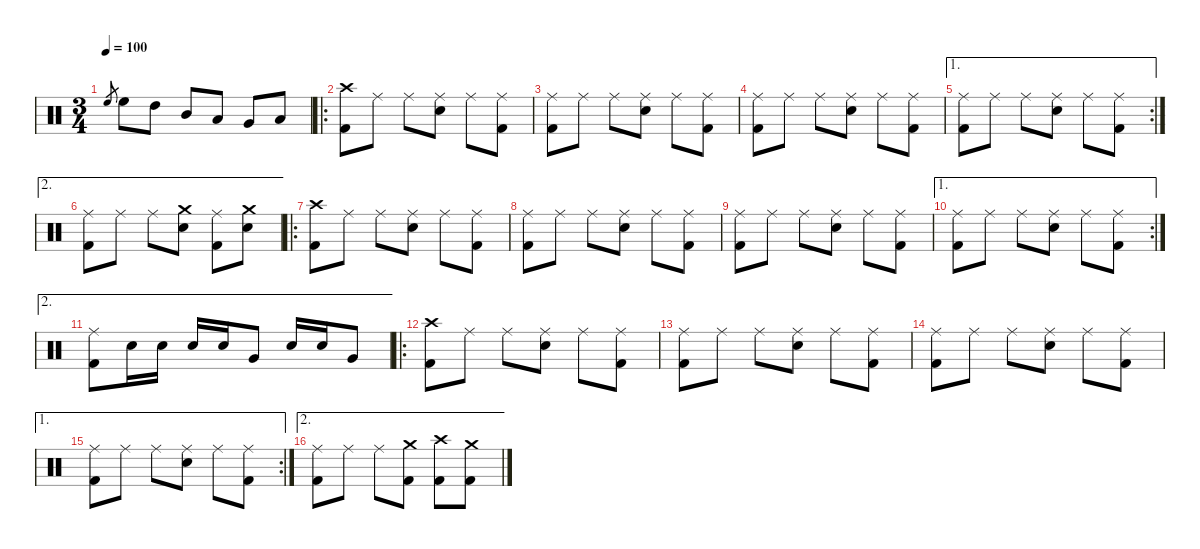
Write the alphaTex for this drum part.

\defaultSystemsLayout 4
\hideDynamics
\bracketExtendMode nobrackets
\singleTrackTrackNamePolicy hidden
\multiTrackTrackNamePolicy hidden
\firstSystemTrackNameMode fullname
\firstSystemTrackNameOrientation horizontal
\otherSystemsTrackNameOrientation horizontal
\track ("Drums" "drm.") {instrument percussion}
\staff {score}
\articulation defaults
\ts (3 4)
\tempo 100
\clef neutral
\ks c "High Floor Tom (hit)".8{gr dy mf beam Up} "High Floor Tom (hit)".8{dy f beam Down} "High Tom (hit)".8{beam Down} "Mid Tom (hit)".8{beam Up} "Low Tom (hit)".8{beam Up} "Very Low Tom (hit)".8{beam Up} "Low Floor Tom (hit)".8{beam Up}
|
\ro
("Crash high (hit)" "Kick (hit) 2").8{beam Down} "Ride (middle)".8{beam Down} "Ride (middle)".8{beam Down} ("Ride (middle)" "Snare (hit) 2").8{beam Down} "Ride (middle)".8{beam Down} ("Ride (middle)" "Kick (hit) 2").8{beam Down} |
("Ride (middle)" "Kick (hit) 2").8{beam Down} "Ride (middle)".8{beam Down} "Ride (middle)".8{beam Down} ("Ride (middle)" "Snare (hit) 2").8{beam Down} "Ride (middle)".8{beam Down} ("Ride (middle)" "Kick (hit) 2").8{beam Down} |
("Ride (middle)" "Kick (hit) 2").8{beam Down} "Ride (middle)".8{beam Down} "Ride (middle)".8{beam Down} ("Ride (middle)" "Snare (hit) 2").8{beam Down} "Ride (middle)".8{beam Down} ("Ride (middle)" "Kick (hit) 2").8{beam Down} |
\ae 1
\rc 2
("Ride (middle)" "Kick (hit) 2").8{beam Down} "Ride (middle)".8{beam Down} "Ride (middle)".8{beam Down} ("Ride (middle)" "Snare (hit) 2").8{beam Down} "Ride (middle)".8{beam Down} ("Ride (middle)" "Kick (hit) 2").8{beam Down} |
\ae 2
("Ride (middle)" "Kick (hit) 2").8{beam Down} "Ride (middle)".8{beam Down} "Ride (middle)".8{beam Down} ("Crash medium (hit)" "Snare (hit) 2").8{beam Down} ("Ride (middle)" "Kick (hit) 2").8{beam Down} ("Crash medium (hit)" "Snare (hit) 2").8{beam Down} |
\ro
("Crash high (hit)" "Kick (hit) 2").8{beam Down} "Ride (middle)".8{beam Down} "Ride (middle)".8{beam Down} ("Ride (middle)" "Snare (hit) 2").8{beam Down} "Ride (middle)".8{beam Down} ("Ride (middle)" "Kick (hit) 2").8{beam Down} |
("Ride (middle)" "Kick (hit) 2").8{beam Down} "Ride (middle)".8{beam Down} "Ride (middle)".8{beam Down} ("Ride (middle)" "Snare (hit) 2").8{beam Down} "Ride (middle)".8{beam Down} ("Ride (middle)" "Kick (hit) 2").8{beam Down} |
("Ride (middle)" "Kick (hit) 2").8{beam Down} "Ride (middle)".8{beam Down} "Ride (middle)".8{beam Down} ("Ride (middle)" "Snare (hit) 2").8{beam Down} "Ride (middle)".8{beam Down} ("Ride (middle)" "Kick (hit) 2").8{beam Down} |
\ae 1
\rc 2
("Ride (middle)" "Kick (hit) 2").8{beam Down} "Ride (middle)".8{beam Down} "Ride (middle)".8{beam Down} ("Ride (middle)" "Snare (hit) 2").8{beam Down} "Ride (middle)".8{beam Down} ("Ride (middle)" "Kick (hit) 2").8{beam Down} |
\ae 2
("Ride (middle)" "Kick (hit) 2").8{beam Down} "Snare (hit) 2".16{dy mf beam Down} "Snare (hit) 2".16{dy f beam Down} "Snare (hit) 2".16{beam Up} "Snare (hit) 2".16{dy ff beam Up} "Very Low Tom (hit)".8{beam Up} "Snare (hit) 2".16{dy f beam Up} "Snare (hit) 2".16{dy ff beam Up} "Very Low Tom (hit)".8{beam Up} |
\ro
("Crash high (hit)" "Kick (hit) 2").8{dy f beam Down} "Ride (middle)".8{beam Down} "Ride (middle)".8{beam Down} ("Ride (middle)" "Snare (hit) 2").8{beam Down} "Ride (middle)".8{beam Down} ("Ride (middle)" "Kick (hit) 2").8{beam Down} |
("Ride (middle)" "Kick (hit) 2").8{beam Down} "Ride (middle)".8{beam Down} "Ride (middle)".8{beam Down} ("Ride (middle)" "Snare (hit) 2").8{beam Down} "Ride (middle)".8{beam Down} ("Ride (middle)" "Kick (hit) 2").8{beam Down} |
("Ride (middle)" "Kick (hit) 2").8{beam Down} "Ride (middle)".8{beam Down} "Ride (middle)".8{beam Down} ("Ride (middle)" "Snare (hit) 2").8{beam Down} "Ride (middle)".8{beam Down} ("Ride (middle)" "Kick (hit) 2").8{beam Down} |
\ae 1
\rc 2
("Ride (middle)" "Kick (hit) 2").8{beam Down} "Ride (middle)".8{beam Down} "Ride (middle)".8{beam Down} ("Ride (middle)" "Snare (hit) 2").8{beam Down} "Ride (middle)".8{beam Down} ("Ride (middle)" "Kick (hit) 2").8{beam Down} |
\ae 2
("Ride (middle)" "Kick (hit) 2").8{beam Down} "Ride (middle)".8{beam Down} "Ride (middle)".8{beam Down} ("Crash medium (hit)" "Kick (hit) 2").8{beam Down} ("Crash high (hit)" "Kick (hit) 2").8{beam Down} ("Crash medium (hit)" "Kick (hit) 2").8{beam Down}
